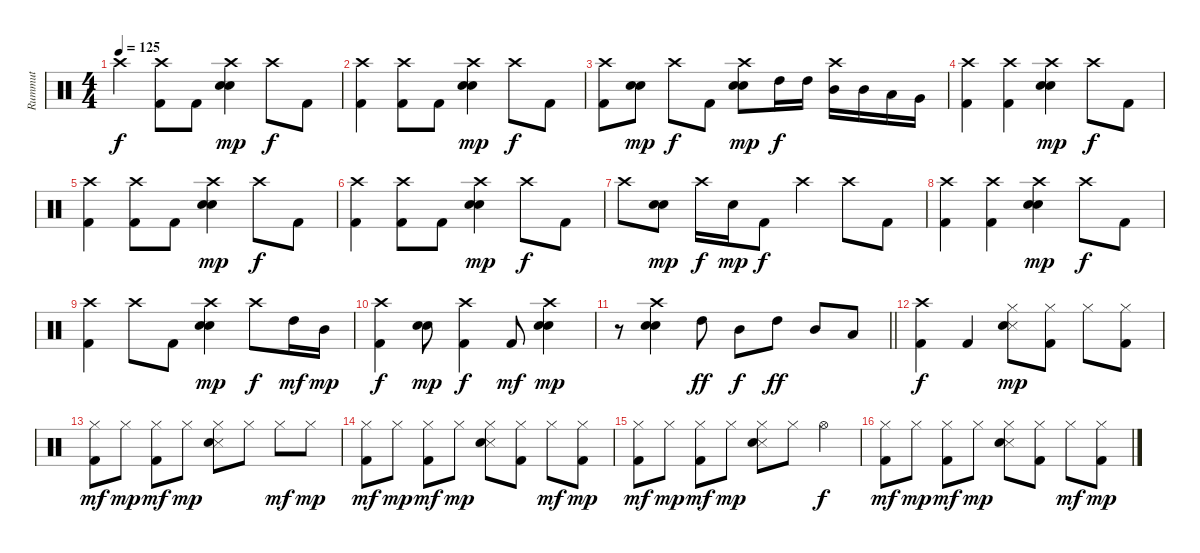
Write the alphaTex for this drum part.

\track ("Rummut" "Rummut") {instrument percussion}
\staff {score}
\articulation defaults
\ts (4 4)
\tempo 125
\clef neutral
\ks c "Crash high (hit)".4{dy f}
("Crash high (hit)" "Kick (hit) 2").8 "Kick (hit) 2".8 ("Crash high (hit)" "Electric Snare (hit)" "Snare (hit) 2").4{dy mp} "Crash high (hit)".8{dy f} "Kick (hit) 2".8 |
("Crash high (hit)" "Kick (hit) 2").4 ("Crash high (hit)" "Kick (hit) 2").8 "Kick (hit) 2".8 ("Crash high (hit)" "Electric Snare (hit)" "Snare (hit) 2").4{dy mp} "Crash high (hit)".8{dy f} "Kick (hit) 2".8 |
("Crash high (hit)" "Kick (hit) 2").8 ("Electric Snare (hit)" "Snare (hit) 2").8{dy mp} "Crash high (hit)".8{dy f} "Kick (hit) 2".8 ("Crash high (hit)" "Electric Snare (hit)" "Snare (hit) 2").8{dy mp} "High Tom (hit)".16{dy f} "High Tom (hit)".16 ("Crash high (hit)" "Mid Tom (hit)").16 "Mid Tom (hit)".16 "Low Tom (hit)".16 "Very Low Tom (hit)".16 |
("Crash high (hit)" "Kick (hit) 2").4 ("Crash high (hit)" "Kick (hit) 2").4 ("Crash high (hit)" "Electric Snare (hit)" "Snare (hit) 2").4{dy mp} "Crash high (hit)".8{dy f} "Kick (hit) 2".8 |
("Crash high (hit)" "Kick (hit) 2").4 ("Crash high (hit)" "Kick (hit) 2").8 "Kick (hit) 2".8 ("Crash high (hit)" "Electric Snare (hit)" "Snare (hit) 2").4{dy mp} "Crash high (hit)".8{dy f} "Kick (hit) 2".8 |
("Crash high (hit)" "Kick (hit) 2").4 ("Crash high (hit)" "Kick (hit) 2").8 "Kick (hit) 2".8 ("Crash high (hit)" "Electric Snare (hit)" "Snare (hit) 2").4{dy mp} "Crash high (hit)".8{dy f} "Kick (hit) 2".8 |
"Crash high (hit)".8 ("Electric Snare (hit)" "Snare (hit) 2").8{dy mp} "Crash high (hit)".16{dy f} "Electric Snare (hit)".16{dy mp} "Kick (hit) 2".8{dy f} "Crash high (hit)".4 "Crash high (hit)".8 "Kick (hit) 2".8 |
("Crash high (hit)" "Kick (hit) 2").4 ("Crash high (hit)" "Kick (hit) 2").4 ("Crash high (hit)" "Electric Snare (hit)" "Snare (hit) 2").4{dy mp} "Crash high (hit)".8{dy f} "Kick (hit) 2".8 |
("Crash high (hit)" "Kick (hit) 2").4 "Crash high (hit)".8 "Kick (hit) 2".8 ("Crash high (hit)" "Electric Snare (hit)" "Snare (hit) 2").4{dy mp} "Crash high (hit)".8{dy f} "High Tom (hit)".16{dy mf} "Mid Tom (hit)".16{dy mp} |
("Crash high (hit)" "Kick (hit) 2").4{dy f} ("Electric Snare (hit)" "Snare (hit) 2").8{dy mp} ("Crash high (hit)" "Kick (hit) 2").4{dy f} "Kick (hit) 2".8{dy mf} ("Crash high (hit)" "Electric Snare (hit)" "Snare (hit) 2").4{dy mp} |
\barLineRight lightlight
r.8 ("Crash high (hit)" "Electric Snare (hit)" "Snare (hit) 2").4 "High Tom (hit)".8{dy ff} "Mid Tom (hit)".8{dy f} "High Tom (hit)".8{dy ff} "Mid Tom (hit)".8 "Low Tom (hit)".8 |
\section ("" "")
("Crash high (hit)" "Kick (hit) 2").4{dy f volume 10} "Kick (hit) 2".4 ("Hi-Hat (closed)" "Snare (side stick) 3" "Electric Snare (hit)").8{dy mp} ("Hi-Hat (closed)" "Kick (hit) 2").8 "Hi-Hat (closed)".8 ("Hi-Hat (closed)" "Kick (hit) 2").8 |
("Hi-Hat (closed)" "Kick (hit) 2").8{dy mf} "Hi-Hat (closed)".8{dy mp} ("Hi-Hat (closed)" "Kick (hit) 2").8{dy mf} "Hi-Hat (closed)".8{dy mp} ("Hi-Hat (closed)" "Snare (side stick) 3" "Electric Snare (hit)").8 "Hi-Hat (closed)".8 "Hi-Hat (closed)".8{dy mf} "Hi-Hat (closed)".8{dy mp} |
("Hi-Hat (closed)" "Kick (hit) 2").8{dy mf} "Hi-Hat (closed)".8{dy mp} ("Hi-Hat (closed)" "Kick (hit) 2").8{dy mf} "Hi-Hat (closed)".8{dy mp} ("Hi-Hat (closed)" "Snare (side stick) 3" "Electric Snare (hit)").8 ("Hi-Hat (closed)" "Kick (hit) 2").8 "Hi-Hat (closed)".8{dy mf} ("Hi-Hat (closed)" "Kick (hit) 2").8{dy mp} |
("Hi-Hat (closed)" "Kick (hit) 2").8{dy mf} "Hi-Hat (closed)".8{dy mp} ("Hi-Hat (closed)" "Kick (hit) 2").8{dy mf} "Hi-Hat (closed)".8{dy mp} ("Hi-Hat (closed)" "Snare (side stick) 3" "Electric Snare (hit)").8 "Hi-Hat (closed)".8 "Hi-Hat (open)".4{dy f} |
("Hi-Hat (closed)" "Kick (hit) 2").8{dy mf} "Hi-Hat (closed)".8{dy mp} ("Hi-Hat (closed)" "Kick (hit) 2").8{dy mf} "Hi-Hat (closed)".8{dy mp} ("Hi-Hat (closed)" "Snare (side stick) 3" "Electric Snare (hit)").8 ("Hi-Hat (closed)" "Kick (hit) 2").8 "Hi-Hat (closed)".8{dy mf} ("Hi-Hat (closed)" "Kick (hit) 2").8{dy mp}
